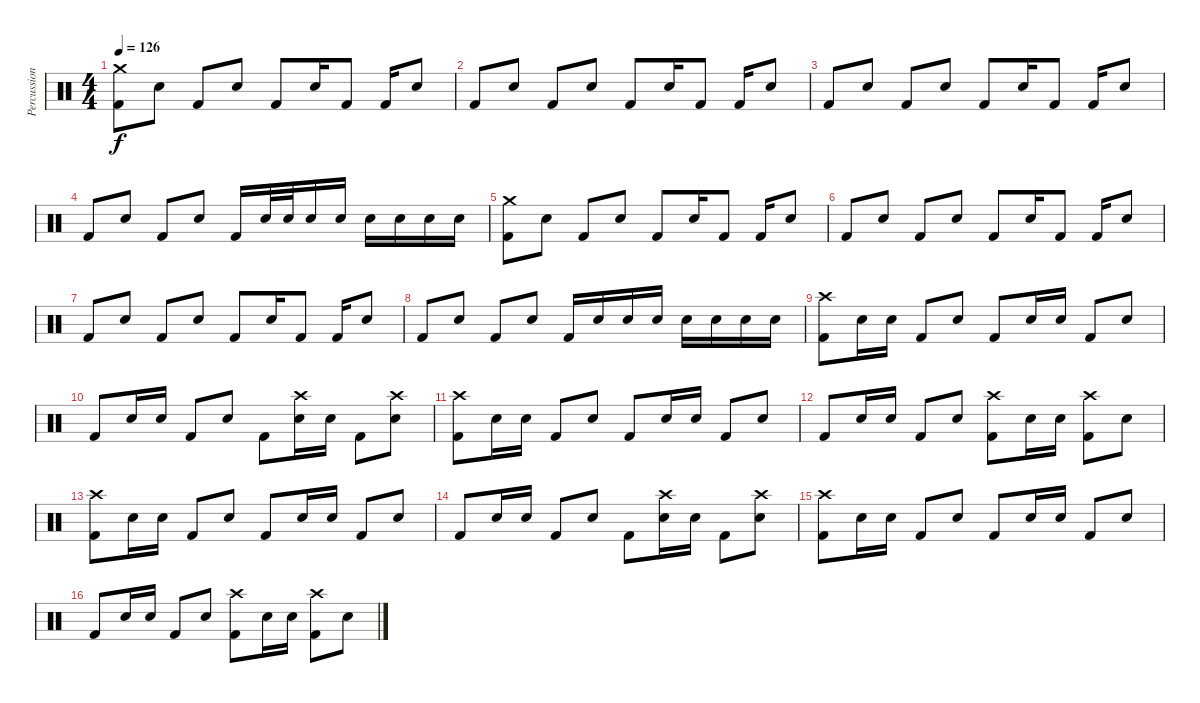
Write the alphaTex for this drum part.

\track ("Percussion" "Percussion") {instrument percussion}
\staff {score}
\articulation defaults
\ts (4 4)
\tempo 126
\clef neutral
\ks c
("Crash medium (hit)" "Kick (hit) 2").8{dy f} "Electric Snare (hit)".8 "Kick (hit) 2".8 "Electric Snare (hit)".8 "Kick (hit) 2".8 "Electric Snare (hit)".16 "Kick (hit) 2".8 "Kick (hit) 2".16 "Electric Snare (hit)".8 |
"Kick (hit) 2".8 "Electric Snare (hit)".8 "Kick (hit) 2".8 "Electric Snare (hit)".8 "Kick (hit) 2".8 "Electric Snare (hit)".16 "Kick (hit) 2".8 "Kick (hit) 2".16 "Electric Snare (hit)".8 |
"Kick (hit) 2".8 "Electric Snare (hit)".8 "Kick (hit) 2".8 "Electric Snare (hit)".8 "Kick (hit) 2".8 "Electric Snare (hit)".16 "Kick (hit) 2".8 "Kick (hit) 2".16 "Electric Snare (hit)".8 |
"Kick (hit) 2".8 "Electric Snare (hit)".8 "Kick (hit) 2".8 "Electric Snare (hit)".8 "Kick (hit) 2".16 "Electric Snare (hit)".32 "Electric Snare (hit)".32 "Electric Snare (hit)".16 "Electric Snare (hit)".16 "Electric Snare (hit)".16 "Electric Snare (hit)".16 "Electric Snare (hit)".16 "Electric Snare (hit)".16 |
("Crash medium (hit)" "Kick (hit) 2").8 "Electric Snare (hit)".8 "Kick (hit) 2".8 "Electric Snare (hit)".8 "Kick (hit) 2".8 "Electric Snare (hit)".16 "Kick (hit) 2".8 "Kick (hit) 2".16 "Electric Snare (hit)".8 |
"Kick (hit) 2".8 "Electric Snare (hit)".8 "Kick (hit) 2".8 "Electric Snare (hit)".8 "Kick (hit) 2".8 "Electric Snare (hit)".16 "Kick (hit) 2".8 "Kick (hit) 2".16 "Electric Snare (hit)".8 |
"Kick (hit) 2".8 "Electric Snare (hit)".8 "Kick (hit) 2".8 "Electric Snare (hit)".8 "Kick (hit) 2".8 "Electric Snare (hit)".16 "Kick (hit) 2".8 "Kick (hit) 2".16 "Electric Snare (hit)".8 |
"Kick (hit) 2".8 "Electric Snare (hit)".8 "Kick (hit) 2".8 "Electric Snare (hit)".8 "Kick (hit) 2".16 "Electric Snare (hit)".16 "Electric Snare (hit)".16 "Electric Snare (hit)".16 "Electric Snare (hit)".16 "Electric Snare (hit)".16 "Electric Snare (hit)".16 "Electric Snare (hit)".16 |
("Crash high (hit)" "Kick (hit) 2").8 "Electric Snare (hit)".16 "Electric Snare (hit)".16 "Kick (hit) 2".8 "Electric Snare (hit)".8 "Kick (hit) 2".8 "Electric Snare (hit)".16 "Electric Snare (hit)".16 "Kick (hit) 2".8 "Electric Snare (hit)".8 |
"Kick (hit) 2".8 "Electric Snare (hit)".16 "Electric Snare (hit)".16 "Kick (hit) 2".8 "Electric Snare (hit)".8 "Kick (hit) 2".8 ("Crash high (hit)" "Electric Snare (hit)").16 "Electric Snare (hit)".16 "Kick (hit) 2".8 ("Crash high (hit)" "Electric Snare (hit)").8 |
("Crash high (hit)" "Kick (hit) 2").8 "Electric Snare (hit)".16 "Electric Snare (hit)".16 "Kick (hit) 2".8 "Electric Snare (hit)".8 "Kick (hit) 2".8 "Electric Snare (hit)".16 "Electric Snare (hit)".16 "Kick (hit) 2".8 "Electric Snare (hit)".8 |
"Kick (hit) 2".8 "Electric Snare (hit)".16 "Electric Snare (hit)".16 "Kick (hit) 2".8 "Electric Snare (hit)".8 ("Crash high (hit)" "Kick (hit) 2").8 "Electric Snare (hit)".16 "Electric Snare (hit)".16 ("Crash high (hit)" "Kick (hit) 2").8 "Electric Snare (hit)".8 |
("Crash high (hit)" "Kick (hit) 2").8 "Electric Snare (hit)".16 "Electric Snare (hit)".16 "Kick (hit) 2".8 "Electric Snare (hit)".8 "Kick (hit) 2".8 "Electric Snare (hit)".16 "Electric Snare (hit)".16 "Kick (hit) 2".8 "Electric Snare (hit)".8 |
"Kick (hit) 2".8 "Electric Snare (hit)".16 "Electric Snare (hit)".16 "Kick (hit) 2".8 "Electric Snare (hit)".8 "Kick (hit) 2".8 ("Crash high (hit)" "Electric Snare (hit)").16 "Electric Snare (hit)".16 "Kick (hit) 2".8 ("Crash high (hit)" "Electric Snare (hit)").8 |
("Crash high (hit)" "Kick (hit) 2").8 "Electric Snare (hit)".16 "Electric Snare (hit)".16 "Kick (hit) 2".8 "Electric Snare (hit)".8 "Kick (hit) 2".8 "Electric Snare (hit)".16 "Electric Snare (hit)".16 "Kick (hit) 2".8 "Electric Snare (hit)".8 |
"Kick (hit) 2".8 "Electric Snare (hit)".16 "Electric Snare (hit)".16 "Kick (hit) 2".8 "Electric Snare (hit)".8 ("Crash high (hit)" "Kick (hit) 2").8 "Electric Snare (hit)".16 "Electric Snare (hit)".16 ("Crash high (hit)" "Kick (hit) 2").8 "Electric Snare (hit)".8
